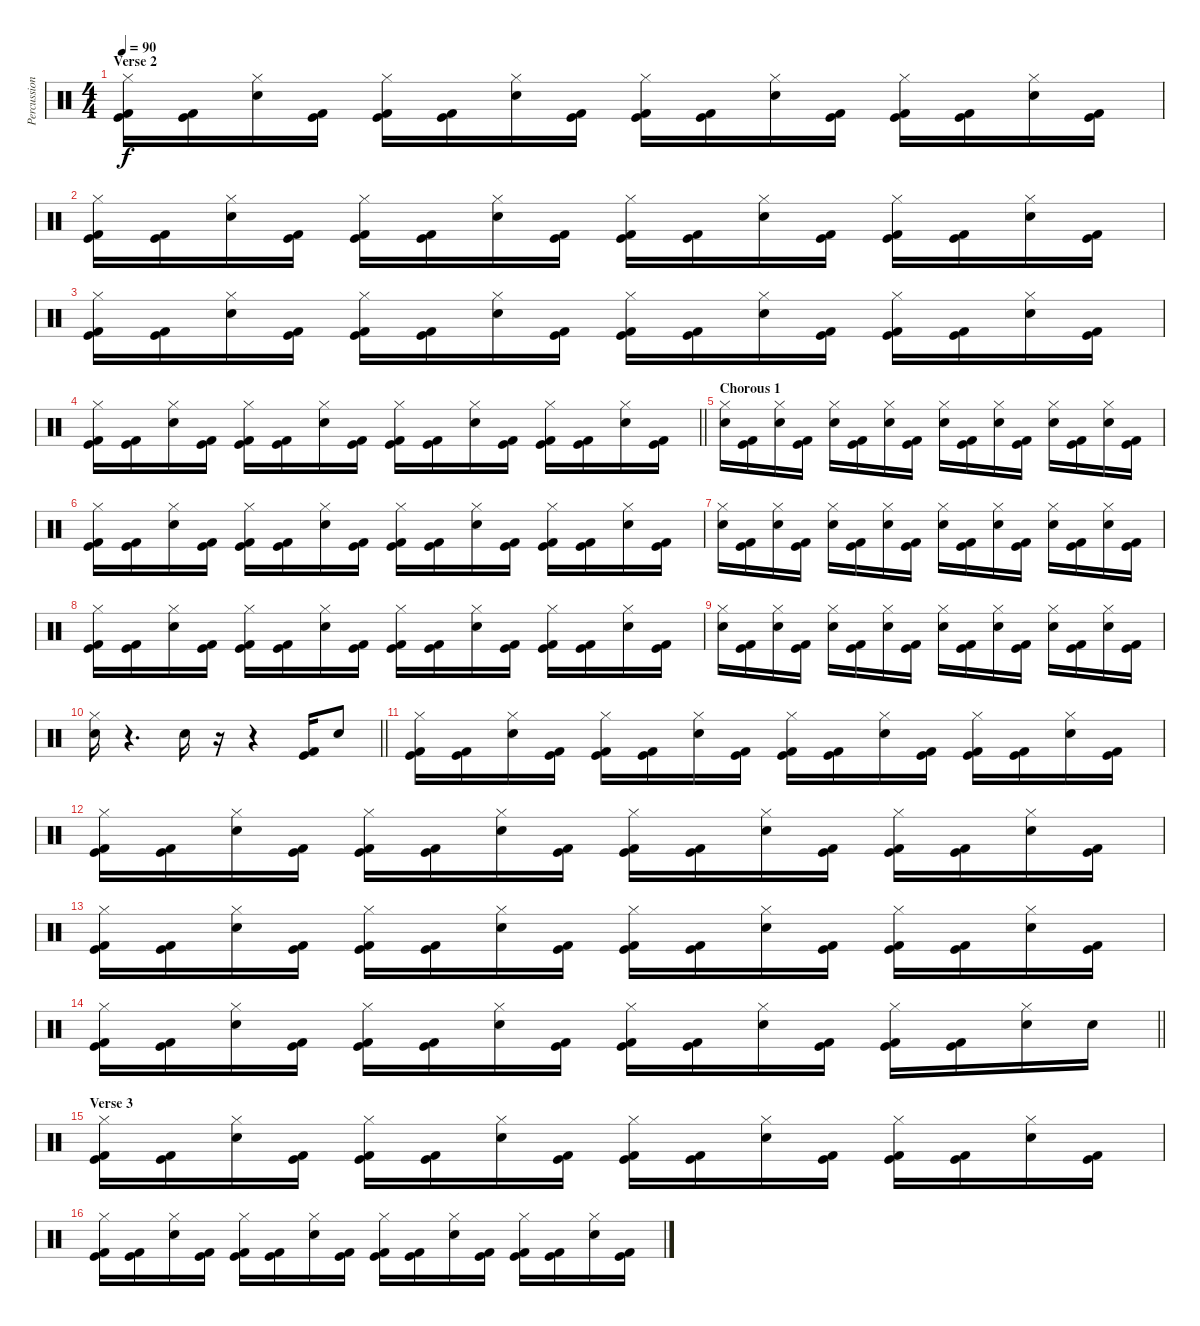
\track ("Percussion" "Percussion") {instrument percussion}
\staff {score}
\articulation defaults
\ts (4 4)
\section ("" "Verse 2")
\tempo 90
\clef neutral
\ks c
("Hi-Hat (closed)" "Kick (hit)" "Kick (hit) 2").16{dy f} ("Kick (hit)" "Kick (hit) 2").16 ("Hi-Hat (closed)" "Electric Snare (hit)").16 ("Kick (hit)" "Kick (hit) 2").16 ("Hi-Hat (closed)" "Kick (hit)" "Kick (hit) 2").16 ("Kick (hit)" "Kick (hit) 2").16 ("Hi-Hat (closed)" "Electric Snare (hit)").16 ("Kick (hit)" "Kick (hit) 2").16 ("Hi-Hat (closed)" "Kick (hit)" "Kick (hit) 2").16 ("Kick (hit)" "Kick (hit) 2").16 ("Hi-Hat (closed)" "Electric Snare (hit)").16 ("Kick (hit)" "Kick (hit) 2").16 ("Hi-Hat (closed)" "Kick (hit)" "Kick (hit) 2").16 ("Kick (hit)" "Kick (hit) 2").16 ("Hi-Hat (closed)" "Electric Snare (hit)").16 ("Kick (hit)" "Kick (hit) 2").16 |
("Hi-Hat (closed)" "Kick (hit)" "Kick (hit) 2").16 ("Kick (hit)" "Kick (hit) 2").16 ("Hi-Hat (closed)" "Electric Snare (hit)").16 ("Kick (hit)" "Kick (hit) 2").16 ("Hi-Hat (closed)" "Kick (hit)" "Kick (hit) 2").16 ("Kick (hit)" "Kick (hit) 2").16 ("Hi-Hat (closed)" "Electric Snare (hit)").16 ("Kick (hit)" "Kick (hit) 2").16 ("Hi-Hat (closed)" "Kick (hit)" "Kick (hit) 2").16 ("Kick (hit)" "Kick (hit) 2").16 ("Hi-Hat (closed)" "Electric Snare (hit)").16 ("Kick (hit)" "Kick (hit) 2").16 ("Hi-Hat (closed)" "Kick (hit)" "Kick (hit) 2").16 ("Kick (hit)" "Kick (hit) 2").16 ("Hi-Hat (closed)" "Electric Snare (hit)").16 ("Kick (hit)" "Kick (hit) 2").16 |
("Hi-Hat (closed)" "Kick (hit)" "Kick (hit) 2").16 ("Kick (hit)" "Kick (hit) 2").16 ("Hi-Hat (closed)" "Electric Snare (hit)").16 ("Kick (hit)" "Kick (hit) 2").16 ("Hi-Hat (closed)" "Kick (hit)" "Kick (hit) 2").16 ("Kick (hit)" "Kick (hit) 2").16 ("Hi-Hat (closed)" "Electric Snare (hit)").16 ("Kick (hit)" "Kick (hit) 2").16 ("Hi-Hat (closed)" "Kick (hit)" "Kick (hit) 2").16 ("Kick (hit)" "Kick (hit) 2").16 ("Hi-Hat (closed)" "Electric Snare (hit)").16 ("Kick (hit)" "Kick (hit) 2").16 ("Hi-Hat (closed)" "Kick (hit)" "Kick (hit) 2").16 ("Kick (hit)" "Kick (hit) 2").16 ("Hi-Hat (closed)" "Electric Snare (hit)").16 ("Kick (hit)" "Kick (hit) 2").16 |
\barLineRight lightlight
("Hi-Hat (closed)" "Kick (hit)" "Kick (hit) 2").16 ("Kick (hit)" "Kick (hit) 2").16 ("Hi-Hat (closed)" "Electric Snare (hit)").16 ("Kick (hit)" "Kick (hit) 2").16 ("Hi-Hat (closed)" "Kick (hit)" "Kick (hit) 2").16 ("Kick (hit)" "Kick (hit) 2").16 ("Hi-Hat (closed)" "Electric Snare (hit)").16 ("Kick (hit)" "Kick (hit) 2").16 ("Hi-Hat (closed)" "Kick (hit)" "Kick (hit) 2").16 ("Kick (hit)" "Kick (hit) 2").16 ("Hi-Hat (closed)" "Electric Snare (hit)").16 ("Kick (hit)" "Kick (hit) 2").16 ("Hi-Hat (closed)" "Kick (hit)" "Kick (hit) 2").16 ("Kick (hit)" "Kick (hit) 2").16 ("Hi-Hat (closed)" "Electric Snare (hit)").16 ("Kick (hit)" "Kick (hit) 2").16 |
\section ("" "Chorous 1")
("Hi-Hat (closed)" "Electric Snare (hit)").16 ("Kick (hit)" "Kick (hit) 2").16 ("Hi-Hat (closed)" "Electric Snare (hit)").16 ("Kick (hit)" "Kick (hit) 2").16 ("Hi-Hat (closed)" "Electric Snare (hit)").16 ("Kick (hit)" "Kick (hit) 2").16 ("Hi-Hat (closed)" "Electric Snare (hit)").16 ("Kick (hit)" "Kick (hit) 2").16 ("Hi-Hat (closed)" "Electric Snare (hit)").16 ("Kick (hit)" "Kick (hit) 2").16 ("Hi-Hat (closed)" "Electric Snare (hit)").16 ("Kick (hit)" "Kick (hit) 2").16 ("Hi-Hat (closed)" "Electric Snare (hit)").16 ("Kick (hit)" "Kick (hit) 2").16 ("Hi-Hat (closed)" "Electric Snare (hit)").16 ("Kick (hit)" "Kick (hit) 2").16 |
("Hi-Hat (closed)" "Kick (hit)" "Kick (hit) 2").16 ("Kick (hit)" "Kick (hit) 2").16 ("Hi-Hat (closed)" "Electric Snare (hit)").16 ("Kick (hit)" "Kick (hit) 2").16 ("Hi-Hat (closed)" "Kick (hit)" "Kick (hit) 2").16 ("Kick (hit)" "Kick (hit) 2").16 ("Hi-Hat (closed)" "Electric Snare (hit)").16 ("Kick (hit)" "Kick (hit) 2").16 ("Hi-Hat (closed)" "Kick (hit)" "Kick (hit) 2").16 ("Kick (hit)" "Kick (hit) 2").16 ("Hi-Hat (closed)" "Electric Snare (hit)").16 ("Kick (hit)" "Kick (hit) 2").16 ("Hi-Hat (closed)" "Kick (hit)" "Kick (hit) 2").16 ("Kick (hit)" "Kick (hit) 2").16 ("Hi-Hat (closed)" "Electric Snare (hit)").16 ("Kick (hit)" "Kick (hit) 2").16 |
("Hi-Hat (closed)" "Electric Snare (hit)").16 ("Kick (hit)" "Kick (hit) 2").16 ("Hi-Hat (closed)" "Electric Snare (hit)").16 ("Kick (hit)" "Kick (hit) 2").16 ("Hi-Hat (closed)" "Electric Snare (hit)").16 ("Kick (hit)" "Kick (hit) 2").16 ("Hi-Hat (closed)" "Electric Snare (hit)").16 ("Kick (hit)" "Kick (hit) 2").16 ("Hi-Hat (closed)" "Electric Snare (hit)").16 ("Kick (hit)" "Kick (hit) 2").16 ("Hi-Hat (closed)" "Electric Snare (hit)").16 ("Kick (hit)" "Kick (hit) 2").16 ("Hi-Hat (closed)" "Electric Snare (hit)").16 ("Kick (hit)" "Kick (hit) 2").16 ("Hi-Hat (closed)" "Electric Snare (hit)").16 ("Kick (hit)" "Kick (hit) 2").16 |
("Hi-Hat (closed)" "Kick (hit)" "Kick (hit) 2").16 ("Kick (hit)" "Kick (hit) 2").16 ("Hi-Hat (closed)" "Electric Snare (hit)").16 ("Kick (hit)" "Kick (hit) 2").16 ("Hi-Hat (closed)" "Kick (hit)" "Kick (hit) 2").16 ("Kick (hit)" "Kick (hit) 2").16 ("Hi-Hat (closed)" "Electric Snare (hit)").16 ("Kick (hit)" "Kick (hit) 2").16 ("Hi-Hat (closed)" "Kick (hit)" "Kick (hit) 2").16 ("Kick (hit)" "Kick (hit) 2").16 ("Hi-Hat (closed)" "Electric Snare (hit)").16 ("Kick (hit)" "Kick (hit) 2").16 ("Hi-Hat (closed)" "Kick (hit)" "Kick (hit) 2").16 ("Kick (hit)" "Kick (hit) 2").16 ("Hi-Hat (closed)" "Electric Snare (hit)").16 ("Kick (hit)" "Kick (hit) 2").16 |
("Hi-Hat (closed)" "Electric Snare (hit)").16 ("Kick (hit)" "Kick (hit) 2").16 ("Hi-Hat (closed)" "Electric Snare (hit)").16 ("Kick (hit)" "Kick (hit) 2").16 ("Hi-Hat (closed)" "Electric Snare (hit)").16 ("Kick (hit)" "Kick (hit) 2").16 ("Hi-Hat (closed)" "Electric Snare (hit)").16 ("Kick (hit)" "Kick (hit) 2").16 ("Hi-Hat (closed)" "Electric Snare (hit)").16 ("Kick (hit)" "Kick (hit) 2").16 ("Hi-Hat (closed)" "Electric Snare (hit)").16 ("Kick (hit)" "Kick (hit) 2").16 ("Hi-Hat (closed)" "Electric Snare (hit)").16 ("Kick (hit)" "Kick (hit) 2").16 ("Hi-Hat (closed)" "Electric Snare (hit)").16 ("Kick (hit)" "Kick (hit) 2").16 |
\barLineRight lightlight
("Hi-Hat (closed)" "Electric Snare (hit)").16 r.4{d} "Electric Snare (hit)".16 r.16 r.4 ("Kick (hit)" "Kick (hit) 2").16 "Electric Snare (hit)".8 |
\section ("" "")
("Hi-Hat (closed)" "Kick (hit)" "Kick (hit) 2").16 ("Kick (hit)" "Kick (hit) 2").16 ("Hi-Hat (closed)" "Electric Snare (hit)").16 ("Kick (hit)" "Kick (hit) 2").16 ("Hi-Hat (closed)" "Kick (hit)" "Kick (hit) 2").16 ("Kick (hit)" "Kick (hit) 2").16 ("Hi-Hat (closed)" "Electric Snare (hit)").16 ("Kick (hit)" "Kick (hit) 2").16 ("Hi-Hat (closed)" "Kick (hit)" "Kick (hit) 2").16 ("Kick (hit)" "Kick (hit) 2").16 ("Hi-Hat (closed)" "Electric Snare (hit)").16 ("Kick (hit)" "Kick (hit) 2").16 ("Hi-Hat (closed)" "Kick (hit)" "Kick (hit) 2").16 ("Kick (hit)" "Kick (hit) 2").16 ("Hi-Hat (closed)" "Electric Snare (hit)").16 ("Kick (hit)" "Kick (hit) 2").16 |
("Hi-Hat (closed)" "Kick (hit)" "Kick (hit) 2").16 ("Kick (hit)" "Kick (hit) 2").16 ("Hi-Hat (closed)" "Electric Snare (hit)").16 ("Kick (hit)" "Kick (hit) 2").16 ("Hi-Hat (closed)" "Kick (hit)" "Kick (hit) 2").16 ("Kick (hit)" "Kick (hit) 2").16 ("Hi-Hat (closed)" "Electric Snare (hit)").16 ("Kick (hit)" "Kick (hit) 2").16 ("Hi-Hat (closed)" "Kick (hit)" "Kick (hit) 2").16 ("Kick (hit)" "Kick (hit) 2").16 ("Hi-Hat (closed)" "Electric Snare (hit)").16 ("Kick (hit)" "Kick (hit) 2").16 ("Hi-Hat (closed)" "Kick (hit)" "Kick (hit) 2").16 ("Kick (hit)" "Kick (hit) 2").16 ("Hi-Hat (closed)" "Electric Snare (hit)").16 ("Kick (hit)" "Kick (hit) 2").16 |
("Hi-Hat (closed)" "Kick (hit)" "Kick (hit) 2").16 ("Kick (hit)" "Kick (hit) 2").16 ("Hi-Hat (closed)" "Electric Snare (hit)").16 ("Kick (hit)" "Kick (hit) 2").16 ("Hi-Hat (closed)" "Kick (hit)" "Kick (hit) 2").16 ("Kick (hit)" "Kick (hit) 2").16 ("Hi-Hat (closed)" "Electric Snare (hit)").16 ("Kick (hit)" "Kick (hit) 2").16 ("Hi-Hat (closed)" "Kick (hit)" "Kick (hit) 2").16 ("Kick (hit)" "Kick (hit) 2").16 ("Hi-Hat (closed)" "Electric Snare (hit)").16 ("Kick (hit)" "Kick (hit) 2").16 ("Hi-Hat (closed)" "Kick (hit)" "Kick (hit) 2").16 ("Kick (hit)" "Kick (hit) 2").16 ("Hi-Hat (closed)" "Electric Snare (hit)").16 ("Kick (hit)" "Kick (hit) 2").16 |
\barLineRight lightlight
("Hi-Hat (closed)" "Kick (hit)" "Kick (hit) 2").16 ("Kick (hit)" "Kick (hit) 2").16 ("Hi-Hat (closed)" "Electric Snare (hit)").16 ("Kick (hit)" "Kick (hit) 2").16 ("Hi-Hat (closed)" "Kick (hit)" "Kick (hit) 2").16 ("Kick (hit)" "Kick (hit) 2").16 ("Hi-Hat (closed)" "Electric Snare (hit)").16 ("Kick (hit)" "Kick (hit) 2").16 ("Hi-Hat (closed)" "Kick (hit)" "Kick (hit) 2").16 ("Kick (hit)" "Kick (hit) 2").16 ("Hi-Hat (closed)" "Electric Snare (hit)").16 ("Kick (hit)" "Kick (hit) 2").16 ("Hi-Hat (closed)" "Kick (hit)" "Kick (hit) 2").16 ("Kick (hit)" "Kick (hit) 2").16 ("Hi-Hat (closed)" "Electric Snare (hit)").16 "Electric Snare (hit)".16 |
\section ("" "Verse 3")
("Hi-Hat (closed)" "Kick (hit)" "Kick (hit) 2").16 ("Kick (hit)" "Kick (hit) 2").16 ("Hi-Hat (closed)" "Electric Snare (hit)").16 ("Kick (hit)" "Kick (hit) 2").16 ("Hi-Hat (closed)" "Kick (hit)" "Kick (hit) 2").16 ("Kick (hit)" "Kick (hit) 2").16 ("Hi-Hat (closed)" "Electric Snare (hit)").16 ("Kick (hit)" "Kick (hit) 2").16 ("Hi-Hat (closed)" "Kick (hit)" "Kick (hit) 2").16 ("Kick (hit)" "Kick (hit) 2").16 ("Hi-Hat (closed)" "Electric Snare (hit)").16 ("Kick (hit)" "Kick (hit) 2").16 ("Hi-Hat (closed)" "Kick (hit)" "Kick (hit) 2").16 ("Kick (hit)" "Kick (hit) 2").16 ("Hi-Hat (closed)" "Electric Snare (hit)").16 ("Kick (hit)" "Kick (hit) 2").16 |
("Hi-Hat (closed)" "Kick (hit)" "Kick (hit) 2").16 ("Kick (hit)" "Kick (hit) 2").16 ("Hi-Hat (closed)" "Electric Snare (hit)").16 ("Kick (hit)" "Kick (hit) 2").16 ("Hi-Hat (closed)" "Kick (hit)" "Kick (hit) 2").16 ("Kick (hit)" "Kick (hit) 2").16 ("Hi-Hat (closed)" "Electric Snare (hit)").16 ("Kick (hit)" "Kick (hit) 2").16 ("Hi-Hat (closed)" "Kick (hit)" "Kick (hit) 2").16 ("Kick (hit)" "Kick (hit) 2").16 ("Hi-Hat (closed)" "Electric Snare (hit)").16 ("Kick (hit)" "Kick (hit) 2").16 ("Hi-Hat (closed)" "Kick (hit)" "Kick (hit) 2").16 ("Kick (hit)" "Kick (hit) 2").16 ("Hi-Hat (closed)" "Electric Snare (hit)").16 ("Kick (hit)" "Kick (hit) 2").16
